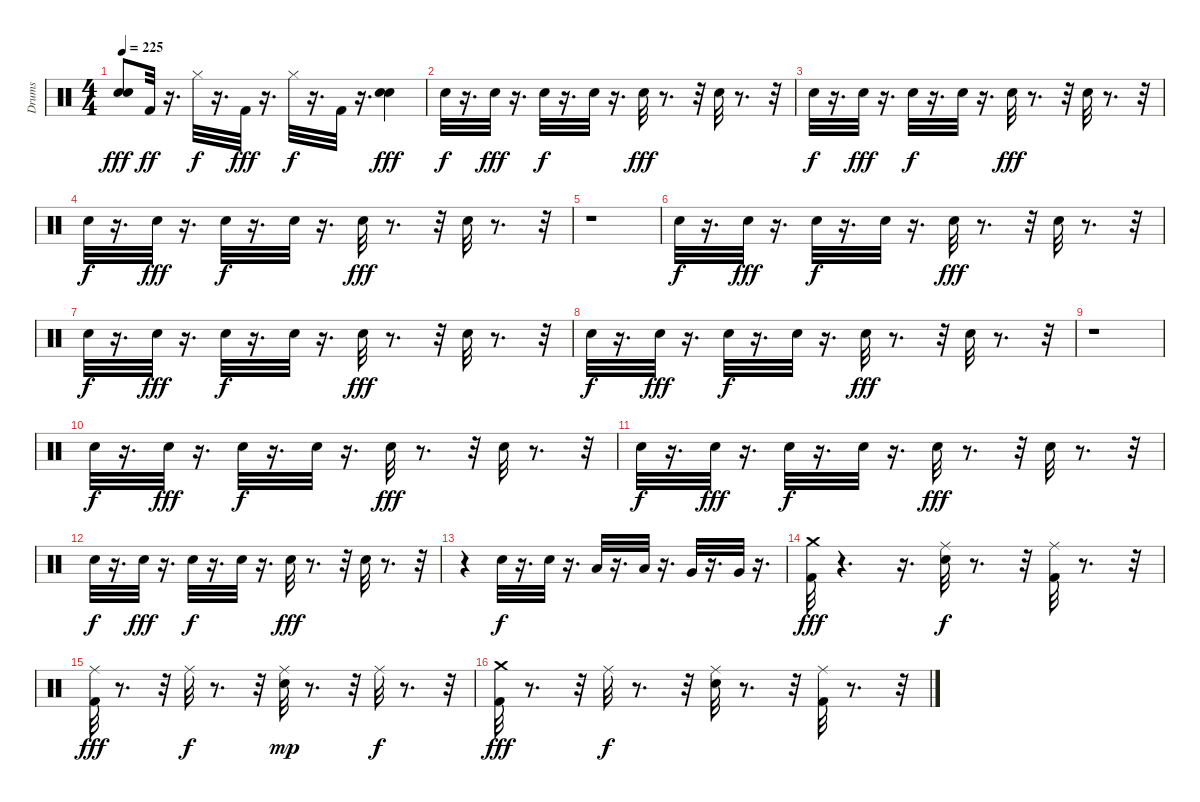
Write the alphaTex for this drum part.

\track ("Drums" "Drums") {instrument percussion}
\staff {score}
\articulation defaults
\ts (4 4)
\tempo 225
\clef neutral
\ks c
("Snare (hit) 2" "Snare (hit) 2").8{dy fff} "Kick (hit) 2".32{dy ff} r.16{d} "Hi-Hat (closed)".32{dy f} r.16{d} "Kick (hit) 2".32{dy fff} r.16{d} "Hi-Hat (closed)".32{dy f} r.16{d} "Kick (hit) 2".32 r.16{d} ("Snare (hit) 2" "Snare (hit) 2").4{dy fff} |
"Snare (hit) 2".32{dy f} r.16{d} "Snare (hit) 2".32{dy fff} r.16{d} "Snare (hit) 2".32{dy f} r.16{d} "Snare (hit) 2".32 r.16{d} "Snare (hit) 2".32{dy fff} r.8{d} r.32 "Snare (hit) 2".32 r.8{d} r.32 |
"Snare (hit) 2".32{dy f} r.16{d} "Snare (hit) 2".32{dy fff} r.16{d} "Snare (hit) 2".32{dy f} r.16{d} "Snare (hit) 2".32 r.16{d} "Snare (hit) 2".32{dy fff} r.8{d} r.32 "Snare (hit) 2".32 r.8{d} r.32 |
"Snare (hit) 2".32{dy f} r.16{d} "Snare (hit) 2".32{dy fff} r.16{d} "Snare (hit) 2".32{dy f} r.16{d} "Snare (hit) 2".32 r.16{d} "Snare (hit) 2".32{dy fff} r.8{d} r.32 "Snare (hit) 2".32 r.8{d} r.32 |
r.1 |
"Snare (hit) 2".32{dy f} r.16{d} "Snare (hit) 2".32{dy fff} r.16{d} "Snare (hit) 2".32{dy f} r.16{d} "Snare (hit) 2".32 r.16{d} "Snare (hit) 2".32{dy fff} r.8{d} r.32 "Snare (hit) 2".32 r.8{d} r.32 |
"Snare (hit) 2".32{dy f} r.16{d} "Snare (hit) 2".32{dy fff} r.16{d} "Snare (hit) 2".32{dy f} r.16{d} "Snare (hit) 2".32 r.16{d} "Snare (hit) 2".32{dy fff} r.8{d} r.32 "Snare (hit) 2".32 r.8{d} r.32 |
"Snare (hit) 2".32{dy f} r.16{d} "Snare (hit) 2".32{dy fff} r.16{d} "Snare (hit) 2".32{dy f} r.16{d} "Snare (hit) 2".32 r.16{d} "Snare (hit) 2".32{dy fff} r.8{d} r.32 "Snare (hit) 2".32 r.8{d} r.32 |
r.1 |
"Snare (hit) 2".32{dy f} r.16{d} "Snare (hit) 2".32{dy fff} r.16{d} "Snare (hit) 2".32{dy f} r.16{d} "Snare (hit) 2".32 r.16{d} "Snare (hit) 2".32{dy fff} r.8{d} r.32 "Snare (hit) 2".32 r.8{d} r.32 |
"Snare (hit) 2".32{dy f} r.16{d} "Snare (hit) 2".32{dy fff} r.16{d} "Snare (hit) 2".32{dy f} r.16{d} "Snare (hit) 2".32 r.16{d} "Snare (hit) 2".32{dy fff} r.8{d} r.32 "Snare (hit) 2".32 r.8{d} r.32 |
"Snare (hit) 2".32{dy f} r.16{d} "Snare (hit) 2".32{dy fff} r.16{d} "Snare (hit) 2".32{dy f} r.16{d} "Snare (hit) 2".32 r.16{d} "Snare (hit) 2".32{dy fff} r.8{d} r.32 "Snare (hit) 2".32 r.8{d} r.32 |
r.4 "Snare (hit) 2".32{dy f} r.16{d} "Snare (hit) 2".32 r.16{d} "Low Tom (hit)".32 r.16{d} "Low Tom (hit)".32 r.16{d} "Very Low Tom (hit)".32 r.16{d} "Very Low Tom (hit)".32 r.16{d} |
("Crash medium (hit)" "Kick (hit) 2").32{dy fff} r.4{d} r.16{d} ("Snare (hit) 2" "Ride (middle)").32{dy f} r.8{d} r.32 ("Kick (hit) 2" "Ride (middle)").32 r.8{d} r.32 |
("Kick (hit) 2" "Ride (middle)").32{dy fff} r.8{d} r.32 "Ride (middle)".32{dy f} r.8{d} r.32 ("Snare (hit) 2" "Ride (middle)").32{dy mp} r.8{d} r.32 "Ride (middle)".32{dy f} r.8{d} r.32 |
("Crash medium (hit)" "Kick (hit) 2").32{dy fff} r.8{d} r.32 "Ride (middle)".32{dy f} r.8{d} r.32 ("Snare (hit) 2" "Ride (middle)").32 r.8{d} r.32 ("Kick (hit) 2" "Ride (middle)").32 r.8{d} r.32
